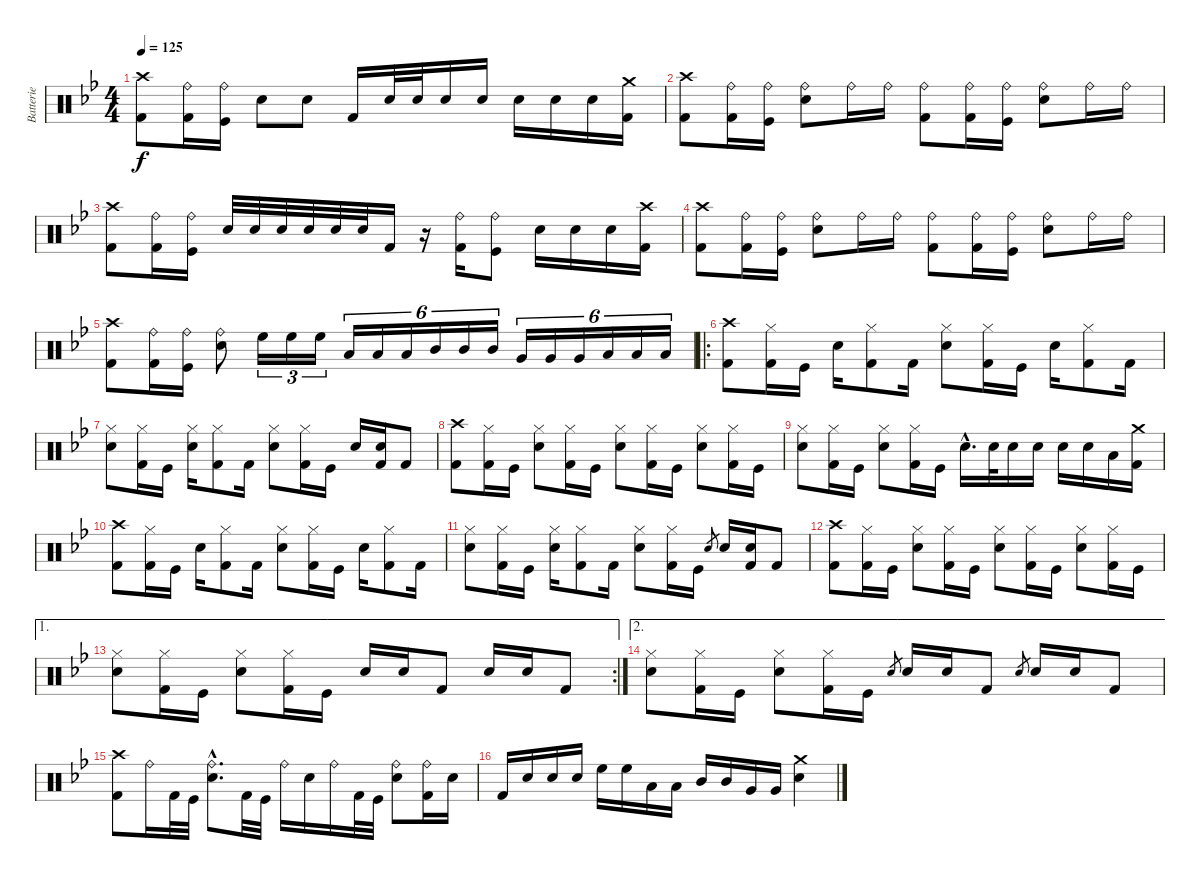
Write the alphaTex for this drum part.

\track ("Batterie" "Batterie") {instrument percussion}
\staff {score}
\articulation defaults
\ts (4 4)
\tempo 125
\clef neutral
\ks bb
("Crash high (hit)" "Kick (hit) 2").8{dy f} ("Ride (bell)" "Kick (hit) 2").16 ("Ride (bell)" "Kick (hit)").16 "Electric Snare (hit)".8 "Electric Snare (hit)".8 "Kick (hit) 2".16 "Electric Snare (hit)".32 "Electric Snare (hit)".32 "Electric Snare (hit)".16 "Electric Snare (hit)".16 "Electric Snare (hit)".16 "Electric Snare (hit)".16 "Electric Snare (hit)".16 ("Crash medium (hit)" "Kick (hit) 2").16 |
("Crash high (hit)" "Kick (hit) 2").8 ("Ride (bell)" "Kick (hit) 2").16 ("Ride (bell)" "Kick (hit)").16 ("Ride (bell)" "Electric Snare (hit)").8 "Ride (bell)".16 "Ride (bell)".16 ("Ride (bell)" "Kick (hit) 2").8 ("Ride (bell)" "Kick (hit) 2").16 ("Ride (bell)" "Kick (hit)").16 ("Ride (bell)" "Electric Snare (hit)").8 "Ride (bell)".16 "Ride (bell)".16 |
("Crash high (hit)" "Kick (hit) 2").8 ("Ride (bell)" "Kick (hit) 2").16 ("Ride (bell)" "Kick (hit)").16 "Electric Snare (hit)".32 "Electric Snare (hit)".32 "Electric Snare (hit)".32 "Electric Snare (hit)".32 "Electric Snare (hit)".32 "Electric Snare (hit)".32 "Kick (hit) 2".16 r.16 ("Ride (bell)" "Kick (hit) 2").16 ("Ride (bell)" "Kick (hit)").8 "Electric Snare (hit)".16 "Electric Snare (hit)".16 "Electric Snare (hit)".16 ("Crash high (hit)" "Kick (hit) 2").16 |
("Crash high (hit)" "Kick (hit) 2").8 ("Ride (bell)" "Kick (hit) 2").16 ("Ride (bell)" "Kick (hit)").16 ("Ride (bell)" "Electric Snare (hit)").8 "Ride (bell)".16 "Ride (bell)".16 ("Ride (bell)" "Kick (hit) 2").8 ("Ride (bell)" "Kick (hit) 2").16 ("Ride (bell)" "Kick (hit)").16 ("Ride (bell)" "Electric Snare (hit)").8 "Ride (bell)".16 "Ride (bell)".16 |
("Crash high (hit)" "Kick (hit) 2").8 ("Ride (bell)" "Kick (hit) 2").16 ("Ride (bell)" "Kick (hit)").16 ("Ride (bell)" "Electric Snare (hit)").8 "High Floor Tom (hit)".16{tu (3 2)} "High Floor Tom (hit)".16{tu (3 2)} "High Floor Tom (hit)".16{tu (3 2)} "Low Tom (hit)".16{tu (6 4)} "Low Tom (hit)".16{tu (6 4)} "Low Tom (hit)".16{tu (6 4)} "Mid Tom (hit)".16{tu (6 4)} "Mid Tom (hit)".16{tu (6 4)} "Mid Tom (hit)".16{tu (6 4)} "Very Low Tom (hit)".16{tu (6 4)} "Very Low Tom (hit)".16{tu (6 4)} "Very Low Tom (hit)".16{tu (6 4)} "Low Floor Tom (hit)".16{tu (6 4)} "Low Floor Tom (hit)".16{tu (6 4)} "Low Floor Tom (hit)".16{tu (6 4)} |
\ro
("Crash high (hit)" "Kick (hit) 2").8 ("Hi-Hat (closed)" "Kick (hit) 2").16 "Kick (hit)".16 "Electric Snare (hit)".16 ("Hi-Hat (closed)" "Kick (hit) 2").8 "Kick (hit) 2".16 ("Hi-Hat (closed)" "Electric Snare (hit)").8 ("Hi-Hat (closed)" "Kick (hit) 2").16 "Kick (hit)".16 "Electric Snare (hit)".16 ("Hi-Hat (closed)" "Kick (hit) 2").8 "Kick (hit) 2".16 |
("Hi-Hat (closed)" "Electric Snare (hit)").8 ("Hi-Hat (closed)" "Kick (hit) 2").16 "Kick (hit)".16 ("Hi-Hat (closed)" "Electric Snare (hit)").16 ("Hi-Hat (closed)" "Kick (hit) 2").8 "Kick (hit) 2".16 ("Hi-Hat (closed)" "Electric Snare (hit)").8 ("Hi-Hat (closed)" "Kick (hit) 2").16 "Kick (hit)".16 "Electric Snare (hit)".16 ("Electric Snare (hit)" "Kick (hit) 2").16 "Kick (hit) 2".8 |
("Crash high (hit)" "Kick (hit) 2").8 ("Hi-Hat (closed)" "Kick (hit) 2").16 "Kick (hit)".16 ("Hi-Hat (closed)" "Electric Snare (hit)").8 ("Hi-Hat (closed)" "Kick (hit) 2").16 "Kick (hit)".16 ("Hi-Hat (closed)" "Electric Snare (hit)").8 ("Hi-Hat (closed)" "Kick (hit) 2").16 "Kick (hit)".16 ("Hi-Hat (closed)" "Electric Snare (hit)").8 ("Hi-Hat (closed)" "Kick (hit) 2").16 "Kick (hit)".16 |
("Hi-Hat (closed)" "Electric Snare (hit)").8 ("Hi-Hat (closed)" "Kick (hit) 2").16 "Kick (hit)".16 ("Hi-Hat (closed)" "Electric Snare (hit)").8 ("Hi-Hat (closed)" "Kick (hit) 2").16 "Kick (hit)".16 "Electric Snare (hit)"{hac}.16{d} "Electric Snare (hit)".32 "Electric Snare (hit)".16 "Electric Snare (hit)".16 "Electric Snare (hit)".16 "Electric Snare (hit)".16 "Low Tom (hit)".16 ("Crash medium (hit)" "Kick (hit) 2").16 |
("Crash high (hit)" "Kick (hit) 2").8 ("Hi-Hat (closed)" "Kick (hit) 2").16 "Kick (hit)".16 "Electric Snare (hit)".16 ("Hi-Hat (closed)" "Kick (hit) 2").8 "Kick (hit) 2".16 ("Hi-Hat (closed)" "Electric Snare (hit)").8 ("Hi-Hat (closed)" "Kick (hit) 2").16 "Kick (hit)".16 "Electric Snare (hit)".16 ("Hi-Hat (closed)" "Kick (hit) 2").8 "Kick (hit) 2".16 |
("Hi-Hat (closed)" "Electric Snare (hit)").8 ("Hi-Hat (closed)" "Kick (hit) 2").16 "Kick (hit)".16 ("Hi-Hat (closed)" "Electric Snare (hit)").16 ("Hi-Hat (closed)" "Kick (hit) 2").8 "Kick (hit) 2".16 ("Hi-Hat (closed)" "Electric Snare (hit)").8 ("Hi-Hat (closed)" "Kick (hit) 2").16 "Kick (hit)".16 "Electric Snare (hit)".8{gr} "Electric Snare (hit)".16 ("Electric Snare (hit)" "Kick (hit) 2").16 "Kick (hit) 2".8 |
("Crash high (hit)" "Kick (hit) 2").8 ("Hi-Hat (closed)" "Kick (hit) 2").16 "Kick (hit)".16 ("Hi-Hat (closed)" "Electric Snare (hit)").8 ("Hi-Hat (closed)" "Kick (hit) 2").16 "Kick (hit)".16 ("Hi-Hat (closed)" "Electric Snare (hit)").8 ("Hi-Hat (closed)" "Kick (hit) 2").16 "Kick (hit)".16 ("Hi-Hat (closed)" "Electric Snare (hit)").8 ("Hi-Hat (closed)" "Kick (hit) 2").16 "Kick (hit)".16 |
\ae 1
\rc 2
("Hi-Hat (closed)" "Electric Snare (hit)").8 ("Hi-Hat (closed)" "Kick (hit) 2").16 "Kick (hit)".16 ("Hi-Hat (closed)" "Electric Snare (hit)").8 ("Hi-Hat (closed)" "Kick (hit) 2").16 "Kick (hit)".16 "Electric Snare (hit)".16 "Electric Snare (hit)".16 "Kick (hit) 2".8 "Electric Snare (hit)".16 "Electric Snare (hit)".16 "Kick (hit) 2".8 |
\ae 2
("Hi-Hat (closed)" "Electric Snare (hit)").8 ("Hi-Hat (closed)" "Kick (hit) 2").16 "Kick (hit)".16 ("Hi-Hat (closed)" "Electric Snare (hit)").8 ("Hi-Hat (closed)" "Kick (hit) 2").16 "Kick (hit)".16 "Electric Snare (hit)".8{gr} "Electric Snare (hit)".16 "Electric Snare (hit)".16 "Kick (hit) 2".8 "Electric Snare (hit)".8{gr} "Electric Snare (hit)".16 "Electric Snare (hit)".16 "Kick (hit) 2".8 |
("Crash high (hit)" "Kick (hit) 2").8 "Ride (bell)".16 "Kick (hit) 2".32 "Kick (hit)".32 ("Ride (bell)"{hac} "Electric Snare (hit)"{hac}).8{d} "Kick (hit) 2".32 "Kick (hit)".32 "Ride (bell)".16 "Electric Snare (hit)".16 "Ride (bell)".16 "Kick (hit) 2".32 "Kick (hit)".32 ("Ride (bell)" "Electric Snare (hit)").8 ("Ride (bell)" "Kick (hit) 2").16 "Electric Snare (hit)".16 |
"Kick (hit) 2".16 "Electric Snare (hit)".16 "Electric Snare (hit)".16 "Electric Snare (hit)".16 "High Floor Tom (hit)".16 "High Floor Tom (hit)".16 "Low Tom (hit)".16 "Low Tom (hit)".16 "Mid Tom (hit)".16 "Mid Tom (hit)".16 "Very Low Tom (hit)".16 "Very Low Tom (hit)".16 ("Crash medium (hit)" "Electric Snare (hit)").4
